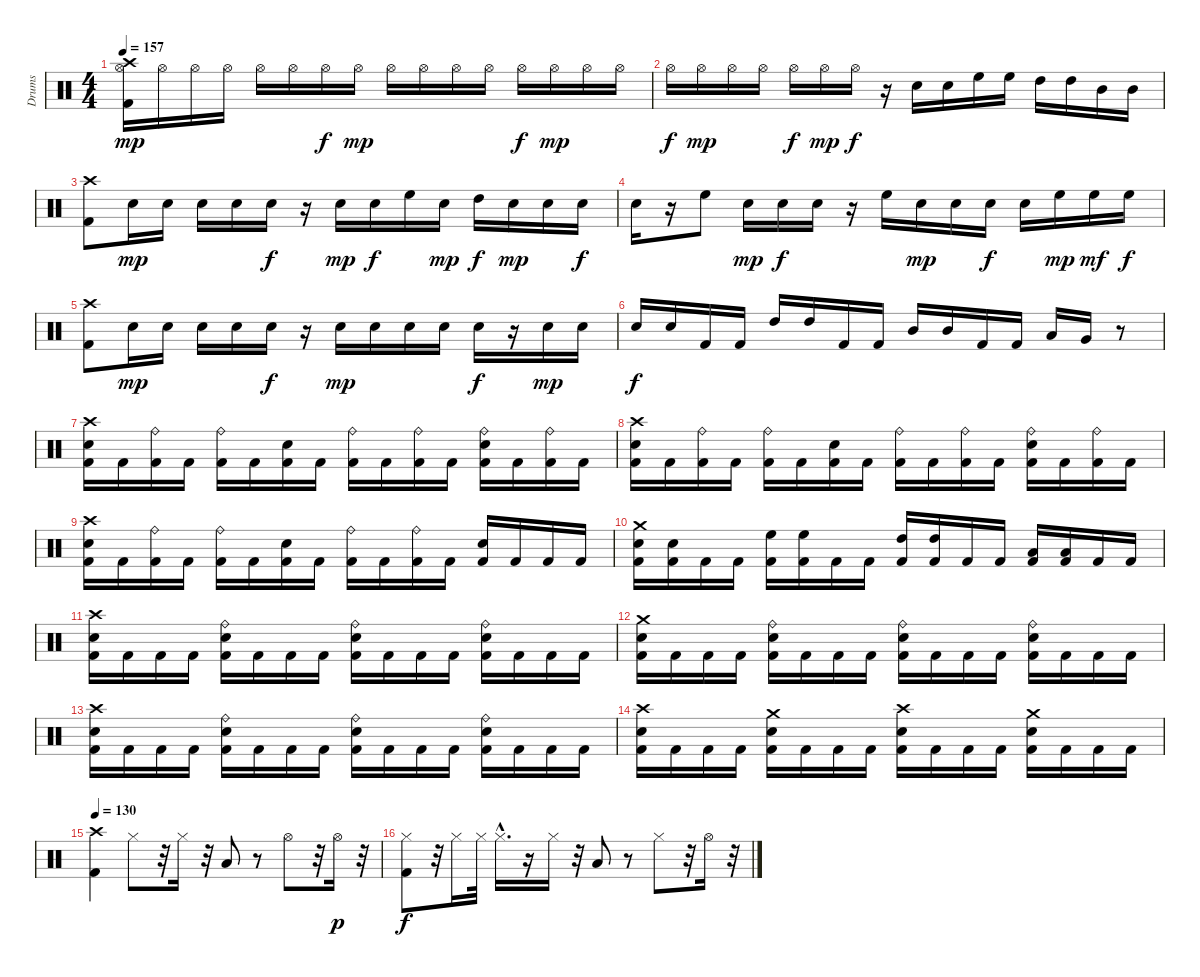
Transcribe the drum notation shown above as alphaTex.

\track ("Drums" "Drums") {instrument percussion}
\staff {score}
\articulation defaults
\ts (4 4)
\tempo 157
\clef neutral
\ks c
("Hi-Hat (open)" "Crash high (hit)" "Kick (hit) 2").16{dy mp} "Hi-Hat (open)".16 "Hi-Hat (open)".16 "Hi-Hat (open)".16 "Hi-Hat (open)".16 "Hi-Hat (open)".16 "Hi-Hat (open)".16{dy f} "Hi-Hat (open)".16{dy mp} "Hi-Hat (open)".16 "Hi-Hat (open)".16 "Hi-Hat (open)".16 "Hi-Hat (open)".16 "Hi-Hat (open)".16{dy f} "Hi-Hat (open)".16{dy mp} "Hi-Hat (open)".16 "Hi-Hat (open)".16 |
"Hi-Hat (open)".16{dy f} "Hi-Hat (open)".16{dy mp} "Hi-Hat (open)".16 "Hi-Hat (open)".16 "Hi-Hat (open)".16{dy f} "Hi-Hat (open)".16{dy mp} "Hi-Hat (open)".16{dy f} r.16 "Electric Snare (hit)".16 "Electric Snare (hit)".16 "High Floor Tom (hit)".16 "High Floor Tom (hit)".16 "High Tom (hit)".16 "High Tom (hit)".16 "Mid Tom (hit)".16 "Mid Tom (hit)".16 |
("Crash high (hit)" "Kick (hit) 2").8 "Electric Snare (hit)".16{dy mp} "Electric Snare (hit)".16 "Electric Snare (hit)".16 "Electric Snare (hit)".16 "Electric Snare (hit)".16{dy f} r.16 "Electric Snare (hit)".16{dy mp} "Electric Snare (hit)".16{dy f} "High Floor Tom (hit)".16 "Electric Snare (hit)".16{dy mp} "High Tom (hit)".16{dy f} "Electric Snare (hit)".16{dy mp} "Electric Snare (hit)".16 "Electric Snare (hit)".16{dy f} |
"Electric Snare (hit)".16 r.16 "High Floor Tom (hit)".8 "Electric Snare (hit)".16{dy mp} "Electric Snare (hit)".16{dy f} "Electric Snare (hit)".16 r.16 "High Floor Tom (hit)".16 "Electric Snare (hit)".16{dy mp} "Electric Snare (hit)".16 "Electric Snare (hit)".16{dy f} "Electric Snare (hit)".16 "High Floor Tom (hit)".16{dy mp} "High Floor Tom (hit)".16{dy mf} "High Floor Tom (hit)".16{dy f} |
("Kick (hit) 2" "Crash high (hit)").8 "Electric Snare (hit)".16{dy mp} "Electric Snare (hit)".16 "Electric Snare (hit)".16 "Electric Snare (hit)".16 "Electric Snare (hit)".16{dy f} r.16 "Electric Snare (hit)".16{dy mp} "Electric Snare (hit)".16 "Electric Snare (hit)".16 "Electric Snare (hit)".16 "Electric Snare (hit)".16{dy f} r.16 "Electric Snare (hit)".16{dy mp} "Electric Snare (hit)".16 |
"Electric Snare (hit)".16{dy f} "Electric Snare (hit)".16 "Kick (hit) 2".16 "Kick (hit) 2".16 "High Tom (hit)".16 "High Tom (hit)".16 "Kick (hit) 2".16 "Kick (hit) 2".16 "Mid Tom (hit)".16 "Mid Tom (hit)".16 "Kick (hit) 2".16 "Kick (hit) 2".16 "Low Tom (hit)".16 "Very Low Tom (hit)".16 r.8 |
("Crash high (hit)" "Electric Snare (hit)" "Kick (hit) 2").16 "Kick (hit) 2".16 ("Kick (hit) 2" "Ride (bell)").16 "Kick (hit) 2".16 ("Kick (hit) 2" "Ride (bell)").16 "Kick (hit) 2".16 ("Kick (hit) 2" "Electric Snare (hit)").16 "Kick (hit) 2".16 ("Kick (hit) 2" "Ride (bell)").16 "Kick (hit) 2".16 ("Kick (hit) 2" "Ride (bell)").16 "Kick (hit) 2".16 ("Kick (hit) 2" "Electric Snare (hit)" "Ride (bell)").16 "Kick (hit) 2".16 ("Kick (hit) 2" "Ride (bell)").16 "Kick (hit) 2".16 |
("Kick (hit) 2" "Electric Snare (hit)" "Crash high (hit)").16 "Kick (hit) 2".16 ("Kick (hit) 2" "Ride (bell)").16 "Kick (hit) 2".16 ("Kick (hit) 2" "Ride (bell)").16 "Kick (hit) 2".16 ("Kick (hit) 2" "Electric Snare (hit)").16 "Kick (hit) 2".16 ("Kick (hit) 2" "Ride (bell)").16 "Kick (hit) 2".16 ("Kick (hit) 2" "Ride (bell)").16 "Kick (hit) 2".16 ("Kick (hit) 2" "Electric Snare (hit)" "Ride (bell)").16 "Kick (hit) 2".16 ("Kick (hit) 2" "Ride (bell)").16 "Kick (hit) 2".16 |
("Kick (hit) 2" "Electric Snare (hit)" "Crash high (hit)").16 "Kick (hit) 2".16 ("Kick (hit) 2" "Ride (bell)").16 "Kick (hit) 2".16 ("Kick (hit) 2" "Ride (bell)").16 "Kick (hit) 2".16 ("Kick (hit) 2" "Electric Snare (hit)").16 "Kick (hit) 2".16 ("Kick (hit) 2" "Ride (bell)").16 "Kick (hit) 2".16 ("Kick (hit) 2" "Ride (bell)").16 "Kick (hit) 2".16 ("Kick (hit) 2" "Electric Snare (hit)").16 "Kick (hit) 2".16 "Kick (hit) 2".16 "Kick (hit) 2".16 |
("Kick (hit) 2" "Crash medium (hit)" "Electric Snare (hit)").16 ("Kick (hit) 2" "Electric Snare (hit)").16 "Kick (hit) 2".16 "Kick (hit) 2".16 ("Kick (hit) 2" "High Floor Tom (hit)").16 ("Kick (hit) 2" "High Floor Tom (hit)").16 "Kick (hit) 2".16 "Kick (hit) 2".16 ("Kick (hit) 2" "High Tom (hit)").16 ("Kick (hit) 2" "High Tom (hit)").16 "Kick (hit) 2".16 "Kick (hit) 2".16 ("Kick (hit) 2" "Low Tom (hit)").16 ("Kick (hit) 2" "Low Tom (hit)").16 "Kick (hit) 2".16 "Kick (hit) 2".16 |
("Kick (hit) 2" "Crash high (hit)" "Electric Snare (hit)").16 "Kick (hit) 2".16 "Kick (hit) 2".16 "Kick (hit) 2".16 ("Kick (hit) 2" "Electric Snare (hit)" "Ride (bell)").16 "Kick (hit) 2".16 "Kick (hit) 2".16 "Kick (hit) 2".16 ("Kick (hit) 2" "Electric Snare (hit)" "Ride (bell)").16 "Kick (hit) 2".16 "Kick (hit) 2".16 "Kick (hit) 2".16 ("Kick (hit) 2" "Electric Snare (hit)" "Ride (bell)").16 "Kick (hit) 2".16 "Kick (hit) 2".16 "Kick (hit) 2".16 |
("Kick (hit) 2" "Electric Snare (hit)" "Crash medium (hit)").16 "Kick (hit) 2".16 "Kick (hit) 2".16 "Kick (hit) 2".16 ("Kick (hit) 2" "Electric Snare (hit)" "Ride (bell)").16 "Kick (hit) 2".16 "Kick (hit) 2".16 "Kick (hit) 2".16 ("Kick (hit) 2" "Electric Snare (hit)" "Ride (bell)").16 "Kick (hit) 2".16 "Kick (hit) 2".16 "Kick (hit) 2".16 ("Kick (hit) 2" "Electric Snare (hit)" "Ride (bell)").16 "Kick (hit) 2".16 "Kick (hit) 2".16 "Kick (hit) 2".16 |
("Kick (hit) 2" "Electric Snare (hit)" "Crash high (hit)").16 "Kick (hit) 2".16 "Kick (hit) 2".16 "Kick (hit) 2".16 ("Kick (hit) 2" "Electric Snare (hit)" "Ride (bell)").16 "Kick (hit) 2".16 "Kick (hit) 2".16 "Kick (hit) 2".16 ("Kick (hit) 2" "Electric Snare (hit)" "Ride (bell)").16 "Kick (hit) 2".16 "Kick (hit) 2".16 "Kick (hit) 2".16 ("Kick (hit) 2" "Electric Snare (hit)" "Ride (bell)").16 "Kick (hit) 2".16 "Kick (hit) 2".16 "Kick (hit) 2".16 |
("Kick (hit) 2" "Electric Snare (hit)" "Crash high (hit)").16 "Kick (hit) 2".16 "Kick (hit) 2".16 "Kick (hit) 2".16 ("Kick (hit) 2" "Electric Snare (hit)" "Crash medium (hit)").16 "Kick (hit) 2".16 "Kick (hit) 2".16 "Kick (hit) 2".16 ("Kick (hit) 2" "Electric Snare (hit)" "Crash high (hit)").16 "Kick (hit) 2".16 "Kick (hit) 2".16 "Kick (hit) 2".16 ("Kick (hit) 2" "Electric Snare (hit)" "Crash medium (hit)").16 "Kick (hit) 2".16 "Kick (hit) 2".16 "Kick (hit) 2".16 |
\tempo 130
("Kick (hit) 2" "Crash high (hit)").4 "Hi-Hat (closed)".8 r.32 "Hi-Hat (closed)".16 r.32 "Low Tom (hit)".8 r.8 "Hi-Hat (open)".8 r.32 "Hi-Hat (open)".16{dy p} r.32 |
("Kick (hit) 2" "Hi-Hat (closed)").8{dy f} r.32 "Hi-Hat (closed)".16 "Hi-Hat (closed)".32 "Hi-Hat (closed)"{hac}.16{d} r.16 "Hi-Hat (closed)".16 r.32 "Low Tom (hit)".8 r.8 "Hi-Hat (closed)".8 r.32 "Hi-Hat (open)".16 r.32
